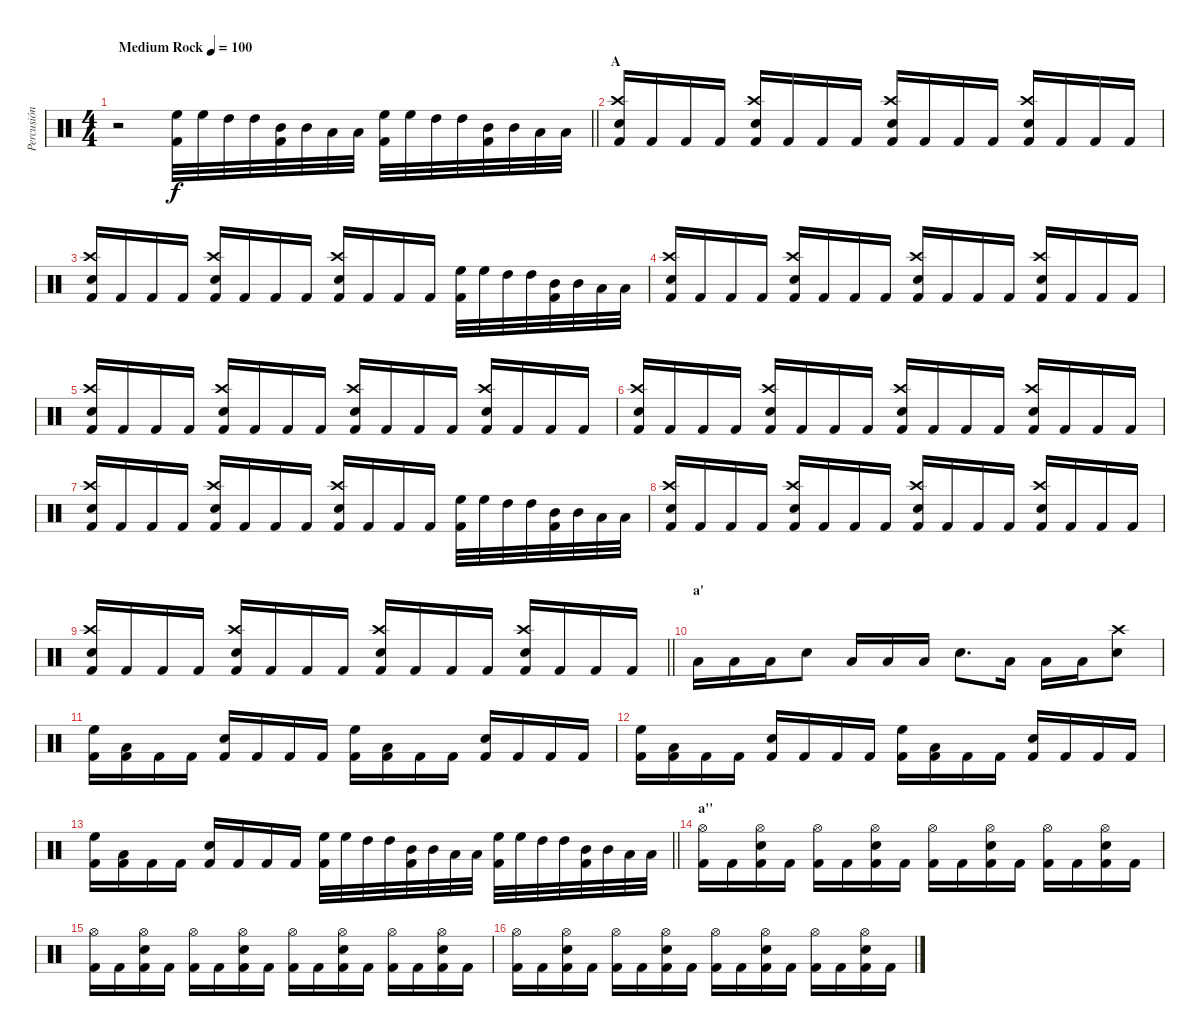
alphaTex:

\track ("Percusión" "Percusión") {instrument percussion bank 1}
\staff {score}
\articulation defaults
\ts (4 4)
\tempo (100 "Medium Rock")
\clef neutral
\barLineRight lightlight
\ks c
r.2{dy f} ("High Floor Tom (hit)" "Kick (hit) 2").32 "High Floor Tom (hit)".32 "High Tom (hit)".32 "High Tom (hit)".32 ("Mid Tom (hit)" "Kick (hit) 2").32 "Mid Tom (hit)".32 "Low Tom (hit)".32 "Low Tom (hit)".32 ("High Floor Tom (hit)" "Kick (hit) 2").32 "High Floor Tom (hit)".32 "High Tom (hit)".32 "High Tom (hit)".32 ("Mid Tom (hit)" "Kick (hit) 2").32 "Mid Tom (hit)".32 "Low Tom (hit)".32 "Low Tom (hit)".32 |
\section ("" "A")
("Kick (hit) 2" "Crash high (hit)" "Snare (hit) 2").16 "Kick (hit) 2".16 "Kick (hit) 2".16 "Kick (hit) 2".16 ("Kick (hit) 2" "Crash high (hit)" "Snare (hit) 2").16 "Kick (hit) 2".16 "Kick (hit) 2".16 "Kick (hit) 2".16 ("Kick (hit) 2" "Crash high (hit)" "Snare (hit) 2").16 "Kick (hit) 2".16 "Kick (hit) 2".16 "Kick (hit) 2".16 ("Crash high (hit)" "Kick (hit) 2" "Snare (hit) 2").16 "Kick (hit) 2".16 "Kick (hit) 2".16 "Kick (hit) 2".16 |
("Kick (hit) 2" "Crash high (hit)" "Snare (hit) 2").16 "Kick (hit) 2".16 "Kick (hit) 2".16 "Kick (hit) 2".16 ("Kick (hit) 2" "Crash high (hit)" "Snare (hit) 2").16 "Kick (hit) 2".16 "Kick (hit) 2".16 "Kick (hit) 2".16 ("Kick (hit) 2" "Crash high (hit)" "Snare (hit) 2").16 "Kick (hit) 2".16 "Kick (hit) 2".16 "Kick (hit) 2".16 ("High Floor Tom (hit)" "Kick (hit) 2").32 "High Floor Tom (hit)".32 "High Tom (hit)".32 "High Tom (hit)".32 ("Mid Tom (hit)" "Kick (hit) 2").32 "Mid Tom (hit)".32 "Low Tom (hit)".32 "Low Tom (hit)".32 |
("Kick (hit) 2" "Crash high (hit)" "Snare (hit) 2").16 "Kick (hit) 2".16 "Kick (hit) 2".16 "Kick (hit) 2".16 ("Kick (hit) 2" "Crash high (hit)" "Snare (hit) 2").16 "Kick (hit) 2".16 "Kick (hit) 2".16 "Kick (hit) 2".16 ("Kick (hit) 2" "Crash high (hit)" "Snare (hit) 2").16 "Kick (hit) 2".16 "Kick (hit) 2".16 "Kick (hit) 2".16 ("Crash high (hit)" "Kick (hit) 2" "Snare (hit) 2").16 "Kick (hit) 2".16 "Kick (hit) 2".16 "Kick (hit) 2".16 |
("Kick (hit) 2" "Crash high (hit)" "Snare (hit) 2").16 "Kick (hit) 2".16 "Kick (hit) 2".16 "Kick (hit) 2".16 ("Kick (hit) 2" "Crash high (hit)" "Snare (hit) 2").16 "Kick (hit) 2".16 "Kick (hit) 2".16 "Kick (hit) 2".16 ("Kick (hit) 2" "Crash high (hit)" "Snare (hit) 2").16 "Kick (hit) 2".16 "Kick (hit) 2".16 "Kick (hit) 2".16 ("Crash high (hit)" "Kick (hit) 2" "Snare (hit) 2").16 "Kick (hit) 2".16 "Kick (hit) 2".16 "Kick (hit) 2".16 |
("Kick (hit) 2" "Crash high (hit)" "Snare (hit) 2").16 "Kick (hit) 2".16 "Kick (hit) 2".16 "Kick (hit) 2".16 ("Kick (hit) 2" "Crash high (hit)" "Snare (hit) 2").16 "Kick (hit) 2".16 "Kick (hit) 2".16 "Kick (hit) 2".16 ("Kick (hit) 2" "Crash high (hit)" "Snare (hit) 2").16 "Kick (hit) 2".16 "Kick (hit) 2".16 "Kick (hit) 2".16 ("Crash high (hit)" "Kick (hit) 2" "Snare (hit) 2").16 "Kick (hit) 2".16 "Kick (hit) 2".16 "Kick (hit) 2".16 |
("Kick (hit) 2" "Crash high (hit)" "Snare (hit) 2").16 "Kick (hit) 2".16 "Kick (hit) 2".16 "Kick (hit) 2".16 ("Kick (hit) 2" "Crash high (hit)" "Snare (hit) 2").16 "Kick (hit) 2".16 "Kick (hit) 2".16 "Kick (hit) 2".16 ("Kick (hit) 2" "Crash high (hit)" "Snare (hit) 2").16 "Kick (hit) 2".16 "Kick (hit) 2".16 "Kick (hit) 2".16 ("High Floor Tom (hit)" "Kick (hit) 2").32 "High Floor Tom (hit)".32 "High Tom (hit)".32 "High Tom (hit)".32 ("Mid Tom (hit)" "Kick (hit) 2").32 "Mid Tom (hit)".32 "Low Tom (hit)".32 "Low Tom (hit)".32 |
("Kick (hit) 2" "Crash high (hit)" "Snare (hit) 2").16 "Kick (hit) 2".16 "Kick (hit) 2".16 "Kick (hit) 2".16 ("Kick (hit) 2" "Crash high (hit)" "Snare (hit) 2").16 "Kick (hit) 2".16 "Kick (hit) 2".16 "Kick (hit) 2".16 ("Kick (hit) 2" "Crash high (hit)" "Snare (hit) 2").16 "Kick (hit) 2".16 "Kick (hit) 2".16 "Kick (hit) 2".16 ("Crash high (hit)" "Kick (hit) 2" "Snare (hit) 2").16 "Kick (hit) 2".16 "Kick (hit) 2".16 "Kick (hit) 2".16 |
\barLineRight lightlight
("Kick (hit) 2" "Crash high (hit)" "Snare (hit) 2").16 "Kick (hit) 2".16 "Kick (hit) 2".16 "Kick (hit) 2".16 ("Kick (hit) 2" "Crash high (hit)" "Snare (hit) 2").16 "Kick (hit) 2".16 "Kick (hit) 2".16 "Kick (hit) 2".16 ("Kick (hit) 2" "Crash high (hit)" "Snare (hit) 2").16 "Kick (hit) 2".16 "Kick (hit) 2".16 "Kick (hit) 2".16 ("Crash high (hit)" "Kick (hit) 2" "Snare (hit) 2").16 "Kick (hit) 2".16 "Kick (hit) 2".16 "Kick (hit) 2".16 |
\section ("" "a'")
"Low Tom (hit)".16 "Low Tom (hit)".16 "Low Tom (hit)".16 "Snare (hit) 2".8 "Low Tom (hit)".16 "Low Tom (hit)".16 "Low Tom (hit)".16 "Snare (hit) 2".8{d} "Low Tom (hit)".16 "Low Tom (hit)".16 "Low Tom (hit)".16 ("Crash high (hit)" "Snare (hit) 2").8 |
("High Floor Tom (hit)" "Kick (hit) 2").16 ("Kick (hit) 2" "Low Tom (hit)").16 "Kick (hit) 2".16 "Kick (hit) 2".16 ("Snare (hit) 2" "Kick (hit) 2").16 "Kick (hit) 2".16 "Kick (hit) 2".16 "Kick (hit) 2".16 ("Kick (hit) 2" "High Floor Tom (hit)").16 ("Kick (hit) 2" "Low Tom (hit)").16 "Kick (hit) 2".16 "Kick (hit) 2".16 ("Kick (hit) 2" "Snare (hit) 2").16 "Kick (hit) 2".16 "Kick (hit) 2".16 "Kick (hit) 2".16 |
("High Floor Tom (hit)" "Kick (hit) 2").16 ("Kick (hit) 2" "Low Tom (hit)").16 "Kick (hit) 2".16 "Kick (hit) 2".16 ("Snare (hit) 2" "Kick (hit) 2").16 "Kick (hit) 2".16 "Kick (hit) 2".16 "Kick (hit) 2".16 ("Kick (hit) 2" "High Floor Tom (hit)").16 ("Kick (hit) 2" "Low Tom (hit)").16 "Kick (hit) 2".16 "Kick (hit) 2".16 ("Kick (hit) 2" "Snare (hit) 2").16 "Kick (hit) 2".16 "Kick (hit) 2".16 "Kick (hit) 2".16 |
\barLineRight lightlight
("High Floor Tom (hit)" "Kick (hit) 2").16 ("Kick (hit) 2" "Low Tom (hit)").16 "Kick (hit) 2".16 "Kick (hit) 2".16 ("Snare (hit) 2" "Kick (hit) 2").16 "Kick (hit) 2".16 "Kick (hit) 2".16 "Kick (hit) 2".16 ("High Floor Tom (hit)" "Kick (hit) 2").32 "High Floor Tom (hit)".32 "High Tom (hit)".32 "High Tom (hit)".32 ("Mid Tom (hit)" "Kick (hit) 2").32 "Mid Tom (hit)".32 "Low Tom (hit)".32 "Low Tom (hit)".32 ("High Floor Tom (hit)" "Kick (hit) 2").32 "High Floor Tom (hit)".32 "High Tom (hit)".32 "High Tom (hit)".32 ("Mid Tom (hit)" "Kick (hit) 2").32 "Mid Tom (hit)".32 "Low Tom (hit)".32 "Low Tom (hit)".32 |
\section ("" "a''")
("Hi-Hat (open)" "Kick (hit) 2").16 "Kick (hit) 2".16 ("Snare (hit) 2" "Hi-Hat (open)" "Kick (hit) 2").16 "Kick (hit) 2".16 ("Hi-Hat (open)" "Kick (hit) 2").16 "Kick (hit) 2".16 ("Snare (hit) 2" "Hi-Hat (open)" "Kick (hit) 2").16 "Kick (hit) 2".16 ("Hi-Hat (open)" "Kick (hit) 2").16 "Kick (hit) 2".16 ("Snare (hit) 2" "Hi-Hat (open)" "Kick (hit) 2").16 "Kick (hit) 2".16 ("Hi-Hat (open)" "Kick (hit) 2").16 "Kick (hit) 2".16 ("Snare (hit) 2" "Hi-Hat (open)" "Kick (hit) 2").16 "Kick (hit) 2".16 |
("Hi-Hat (open)" "Kick (hit) 2").16 "Kick (hit) 2".16 ("Snare (hit) 2" "Hi-Hat (open)" "Kick (hit) 2").16 "Kick (hit) 2".16 ("Hi-Hat (open)" "Kick (hit) 2").16 "Kick (hit) 2".16 ("Snare (hit) 2" "Hi-Hat (open)" "Kick (hit) 2").16 "Kick (hit) 2".16 ("Hi-Hat (open)" "Kick (hit) 2").16 "Kick (hit) 2".16 ("Snare (hit) 2" "Hi-Hat (open)" "Kick (hit) 2").16 "Kick (hit) 2".16 ("Hi-Hat (open)" "Kick (hit) 2").16 "Kick (hit) 2".16 ("Snare (hit) 2" "Hi-Hat (open)" "Kick (hit) 2").16 "Kick (hit) 2".16 |
("Hi-Hat (open)" "Kick (hit) 2").16 "Kick (hit) 2".16 ("Snare (hit) 2" "Hi-Hat (open)" "Kick (hit) 2").16 "Kick (hit) 2".16 ("Hi-Hat (open)" "Kick (hit) 2").16 "Kick (hit) 2".16 ("Snare (hit) 2" "Hi-Hat (open)" "Kick (hit) 2").16 "Kick (hit) 2".16 ("Hi-Hat (open)" "Kick (hit) 2").16 "Kick (hit) 2".16 ("Snare (hit) 2" "Hi-Hat (open)" "Kick (hit) 2").16 "Kick (hit) 2".16 ("Hi-Hat (open)" "Kick (hit) 2").16 "Kick (hit) 2".16 ("Snare (hit) 2" "Hi-Hat (open)" "Kick (hit) 2").16 "Kick (hit) 2".16
